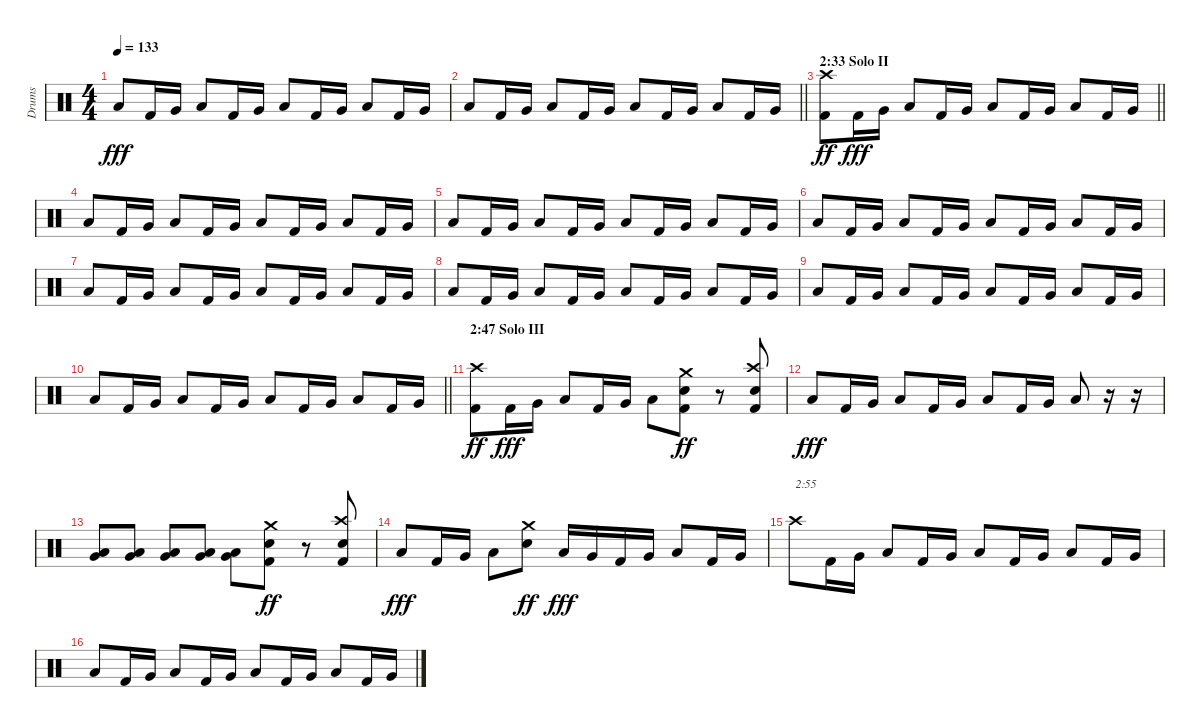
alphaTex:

\track ("Drums" "Drums") {instrument percussion}
\staff {score}
\articulation defaults
\ts (4 4)
\tempo 133
\clef neutral
\ks c "Low Tom (hit)".8{dy fff} "Kick (hit) 2".16 "Very Low Tom (hit)".16 "Low Tom (hit)".8 "Kick (hit) 2".16 "Very Low Tom (hit)".16 "Low Tom (hit)".8 "Kick (hit) 2".16 "Very Low Tom (hit)".16 "Low Tom (hit)".8 "Kick (hit) 2".16 "Very Low Tom (hit)".16
|
\barLineRight lightlight "Low Tom (hit)".8 "Kick (hit) 2".16 "Very Low Tom (hit)".16 "Low Tom (hit)".8 "Kick (hit) 2".16 "Very Low Tom (hit)".16 "Low Tom (hit)".8 "Kick (hit) 2".16 "Very Low Tom (hit)".16 "Low Tom (hit)".8 "Kick (hit) 2".16 "Very Low Tom (hit)".16
|
\section ("" "2:33 Solo II")
\barLineRight lightlight
("Kick (hit) 2" "Crash high (hit)").8{dy ff} "Kick (hit) 2".16{dy fff} "Very Low Tom (hit)".16 "Low Tom (hit)".8 "Kick (hit) 2".16 "Very Low Tom (hit)".16 "Low Tom (hit)".8 "Kick (hit) 2".16 "Very Low Tom (hit)".16 "Low Tom (hit)".8 "Kick (hit) 2".16 "Very Low Tom (hit)".16 |
"Low Tom (hit)".8 "Kick (hit) 2".16 "Very Low Tom (hit)".16 "Low Tom (hit)".8 "Kick (hit) 2".16 "Very Low Tom (hit)".16 "Low Tom (hit)".8 "Kick (hit) 2".16 "Very Low Tom (hit)".16 "Low Tom (hit)".8 "Kick (hit) 2".16 "Very Low Tom (hit)".16 |
"Low Tom (hit)".8 "Kick (hit) 2".16 "Very Low Tom (hit)".16 "Low Tom (hit)".8 "Kick (hit) 2".16 "Very Low Tom (hit)".16 "Low Tom (hit)".8 "Kick (hit) 2".16 "Very Low Tom (hit)".16 "Low Tom (hit)".8 "Kick (hit) 2".16 "Very Low Tom (hit)".16 |
"Low Tom (hit)".8 "Kick (hit) 2".16 "Very Low Tom (hit)".16 "Low Tom (hit)".8 "Kick (hit) 2".16 "Very Low Tom (hit)".16 "Low Tom (hit)".8 "Kick (hit) 2".16 "Very Low Tom (hit)".16 "Low Tom (hit)".8 "Kick (hit) 2".16 "Very Low Tom (hit)".16 |
"Low Tom (hit)".8 "Kick (hit) 2".16 "Very Low Tom (hit)".16 "Low Tom (hit)".8 "Kick (hit) 2".16 "Very Low Tom (hit)".16 "Low Tom (hit)".8 "Kick (hit) 2".16 "Very Low Tom (hit)".16 "Low Tom (hit)".8 "Kick (hit) 2".16 "Very Low Tom (hit)".16 |
"Low Tom (hit)".8 "Kick (hit) 2".16 "Very Low Tom (hit)".16 "Low Tom (hit)".8 "Kick (hit) 2".16 "Very Low Tom (hit)".16 "Low Tom (hit)".8 "Kick (hit) 2".16 "Very Low Tom (hit)".16 "Low Tom (hit)".8 "Kick (hit) 2".16 "Very Low Tom (hit)".16 |
"Low Tom (hit)".8 "Kick (hit) 2".16 "Very Low Tom (hit)".16 "Low Tom (hit)".8 "Kick (hit) 2".16 "Very Low Tom (hit)".16 "Low Tom (hit)".8 "Kick (hit) 2".16 "Very Low Tom (hit)".16 "Low Tom (hit)".8 "Kick (hit) 2".16 "Very Low Tom (hit)".16 |
\barLineRight lightlight "Low Tom (hit)".8 "Kick (hit) 2".16 "Very Low Tom (hit)".16 "Low Tom (hit)".8 "Kick (hit) 2".16 "Very Low Tom (hit)".16 "Low Tom (hit)".8 "Kick (hit) 2".16 "Very Low Tom (hit)".16 "Low Tom (hit)".8 "Kick (hit) 2".16 "Very Low Tom (hit)".16
|
\section ("" "2:47 Solo III")
("Kick (hit) 2" "Crash high (hit)").8{dy ff} "Kick (hit) 2".16{dy fff} "Very Low Tom (hit)".16 "Low Tom (hit)".8 "Kick (hit) 2".16 "Very Low Tom (hit)".16 "Low Tom (hit)".8 ("Kick (hit) 2" "Electric Snare (hit)" "Crash medium (hit)").8{dy ff} r.8 ("Kick (hit) 2" "Electric Snare (hit)" "Crash high (hit)").8 |
"Low Tom (hit)".8{dy fff} "Kick (hit) 2".16 "Very Low Tom (hit)".16 "Low Tom (hit)".8 "Kick (hit) 2".16 "Very Low Tom (hit)".16 "Low Tom (hit)".8 "Kick (hit) 2".16 "Very Low Tom (hit)".16 "Low Tom (hit)".8 r.16 r.16 |
("Low Tom (hit)" "Very Low Tom (hit)").8 ("Low Tom (hit)" "Very Low Tom (hit)").8 ("Low Tom (hit)" "Very Low Tom (hit)").8 ("Low Tom (hit)" "Very Low Tom (hit)").8 ("Low Tom (hit)" "Very Low Tom (hit)").8 ("Kick (hit) 2" "Electric Snare (hit)" "Crash medium (hit)").8{dy ff} r.8 ("Kick (hit) 2" "Electric Snare (hit)" "Crash high (hit)").8 |
"Low Tom (hit)".8{dy fff} "Kick (hit) 2".16 "Very Low Tom (hit)".16 "Low Tom (hit)".8 ("Electric Snare (hit)" "Crash medium (hit)").8{dy ff} "Low Tom (hit)".16{dy fff} "Very Low Tom (hit)".16 "Kick (hit) 2".16 "Very Low Tom (hit)".16 "Low Tom (hit)".8 "Kick (hit) 2".16 "Very Low Tom (hit)".16 |
"Crash high (hit)".8{txt "2:55"} "Kick (hit) 2".16 "Very Low Tom (hit)".16 "Low Tom (hit)".8 "Kick (hit) 2".16 "Very Low Tom (hit)".16 "Low Tom (hit)".8 "Kick (hit) 2".16 "Very Low Tom (hit)".16 "Low Tom (hit)".8 "Kick (hit) 2".16 "Very Low Tom (hit)".16 |
"Low Tom (hit)".8 "Kick (hit) 2".16 "Very Low Tom (hit)".16 "Low Tom (hit)".8 "Kick (hit) 2".16 "Very Low Tom (hit)".16 "Low Tom (hit)".8 "Kick (hit) 2".16 "Very Low Tom (hit)".16 "Low Tom (hit)".8 "Kick (hit) 2".16 "Very Low Tom (hit)".16
